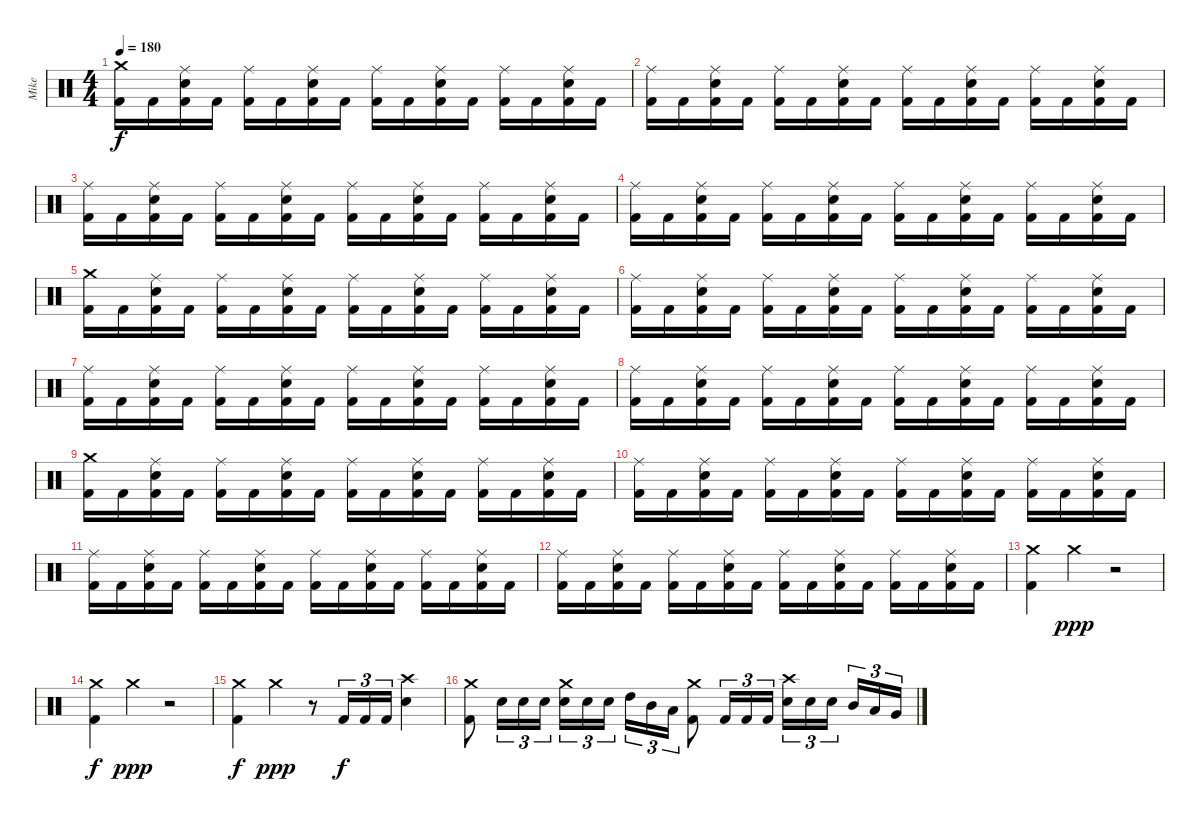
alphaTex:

\track ("Mike" "Mike") {instrument percussion}
\staff {score}
\articulation defaults
\ts (4 4)
\tempo 180
\clef neutral
\ks c
("Crash medium (hit)" "Kick (hit) 2").16{dy f} "Kick (hit) 2".16 ("Ride (middle)" "Electric Snare (hit)" "Kick (hit) 2").16 "Kick (hit) 2".16 ("Ride (middle)" "Kick (hit) 2").16 "Kick (hit) 2".16 ("Ride (middle)" "Electric Snare (hit)" "Kick (hit) 2").16 "Kick (hit) 2".16 ("Ride (middle)" "Kick (hit) 2").16 "Kick (hit) 2".16 ("Ride (middle)" "Electric Snare (hit)" "Kick (hit) 2").16 "Kick (hit) 2".16 ("Ride (middle)" "Kick (hit) 2").16 "Kick (hit) 2".16 ("Ride (middle)" "Electric Snare (hit)" "Kick (hit) 2").16 "Kick (hit) 2".16 |
("Ride (middle)" "Kick (hit) 2").16 "Kick (hit) 2".16 ("Ride (middle)" "Electric Snare (hit)" "Kick (hit) 2").16 "Kick (hit) 2".16 ("Ride (middle)" "Kick (hit) 2").16 "Kick (hit) 2".16 ("Ride (middle)" "Electric Snare (hit)" "Kick (hit) 2").16 "Kick (hit) 2".16 ("Ride (middle)" "Kick (hit) 2").16 "Kick (hit) 2".16 ("Ride (middle)" "Electric Snare (hit)" "Kick (hit) 2").16 "Kick (hit) 2".16 ("Ride (middle)" "Kick (hit) 2").16 "Kick (hit) 2".16 ("Ride (middle)" "Electric Snare (hit)" "Kick (hit) 2").16 "Kick (hit) 2".16 |
("Ride (middle)" "Kick (hit) 2").16 "Kick (hit) 2".16 ("Ride (middle)" "Electric Snare (hit)" "Kick (hit) 2").16 "Kick (hit) 2".16 ("Ride (middle)" "Kick (hit) 2").16 "Kick (hit) 2".16 ("Ride (middle)" "Electric Snare (hit)" "Kick (hit) 2").16 "Kick (hit) 2".16 ("Ride (middle)" "Kick (hit) 2").16 "Kick (hit) 2".16 ("Ride (middle)" "Electric Snare (hit)" "Kick (hit) 2").16 "Kick (hit) 2".16 ("Ride (middle)" "Kick (hit) 2").16 "Kick (hit) 2".16 ("Ride (middle)" "Electric Snare (hit)" "Kick (hit) 2").16 "Kick (hit) 2".16 |
("Ride (middle)" "Kick (hit) 2").16 "Kick (hit) 2".16 ("Ride (middle)" "Electric Snare (hit)" "Kick (hit) 2").16 "Kick (hit) 2".16 ("Ride (middle)" "Kick (hit) 2").16 "Kick (hit) 2".16 ("Ride (middle)" "Electric Snare (hit)" "Kick (hit) 2").16 "Kick (hit) 2".16 ("Ride (middle)" "Kick (hit) 2").16 "Kick (hit) 2".16 ("Ride (middle)" "Electric Snare (hit)" "Kick (hit) 2").16 "Kick (hit) 2".16 ("Ride (middle)" "Kick (hit) 2").16 "Kick (hit) 2".16 ("Ride (middle)" "Electric Snare (hit)" "Kick (hit) 2").16 "Kick (hit) 2".16 |
("Crash medium (hit)" "Kick (hit) 2").16 "Kick (hit) 2".16 ("Ride (middle)" "Electric Snare (hit)" "Kick (hit) 2").16 "Kick (hit) 2".16 ("Ride (middle)" "Kick (hit) 2").16 "Kick (hit) 2".16 ("Ride (middle)" "Electric Snare (hit)" "Kick (hit) 2").16 "Kick (hit) 2".16 ("Ride (middle)" "Kick (hit) 2").16 "Kick (hit) 2".16 ("Ride (middle)" "Electric Snare (hit)" "Kick (hit) 2").16 "Kick (hit) 2".16 ("Ride (middle)" "Kick (hit) 2").16 "Kick (hit) 2".16 ("Ride (middle)" "Electric Snare (hit)" "Kick (hit) 2").16 "Kick (hit) 2".16 |
("Ride (middle)" "Kick (hit) 2").16 "Kick (hit) 2".16 ("Ride (middle)" "Electric Snare (hit)" "Kick (hit) 2").16 "Kick (hit) 2".16 ("Ride (middle)" "Kick (hit) 2").16 "Kick (hit) 2".16 ("Ride (middle)" "Electric Snare (hit)" "Kick (hit) 2").16 "Kick (hit) 2".16 ("Ride (middle)" "Kick (hit) 2").16 "Kick (hit) 2".16 ("Ride (middle)" "Electric Snare (hit)" "Kick (hit) 2").16 "Kick (hit) 2".16 ("Ride (middle)" "Kick (hit) 2").16 "Kick (hit) 2".16 ("Ride (middle)" "Electric Snare (hit)" "Kick (hit) 2").16 "Kick (hit) 2".16 |
("Ride (middle)" "Kick (hit) 2").16 "Kick (hit) 2".16 ("Ride (middle)" "Electric Snare (hit)" "Kick (hit) 2").16 "Kick (hit) 2".16 ("Ride (middle)" "Kick (hit) 2").16 "Kick (hit) 2".16 ("Ride (middle)" "Electric Snare (hit)" "Kick (hit) 2").16 "Kick (hit) 2".16 ("Ride (middle)" "Kick (hit) 2").16 "Kick (hit) 2".16 ("Ride (middle)" "Electric Snare (hit)" "Kick (hit) 2").16 "Kick (hit) 2".16 ("Ride (middle)" "Kick (hit) 2").16 "Kick (hit) 2".16 ("Ride (middle)" "Electric Snare (hit)" "Kick (hit) 2").16 "Kick (hit) 2".16 |
("Ride (middle)" "Kick (hit) 2").16 "Kick (hit) 2".16 ("Ride (middle)" "Electric Snare (hit)" "Kick (hit) 2").16 "Kick (hit) 2".16 ("Ride (middle)" "Kick (hit) 2").16 "Kick (hit) 2".16 ("Ride (middle)" "Electric Snare (hit)" "Kick (hit) 2").16 "Kick (hit) 2".16 ("Ride (middle)" "Kick (hit) 2").16 "Kick (hit) 2".16 ("Ride (middle)" "Electric Snare (hit)" "Kick (hit) 2").16 "Kick (hit) 2".16 ("Ride (middle)" "Kick (hit) 2").16 "Kick (hit) 2".16 ("Ride (middle)" "Electric Snare (hit)" "Kick (hit) 2").16 "Kick (hit) 2".16 |
("Crash medium (hit)" "Kick (hit) 2").16 "Kick (hit) 2".16 ("Ride (middle)" "Electric Snare (hit)" "Kick (hit) 2").16 "Kick (hit) 2".16 ("Ride (middle)" "Kick (hit) 2").16 "Kick (hit) 2".16 ("Ride (middle)" "Electric Snare (hit)" "Kick (hit) 2").16 "Kick (hit) 2".16 ("Ride (middle)" "Kick (hit) 2").16 "Kick (hit) 2".16 ("Ride (middle)" "Electric Snare (hit)" "Kick (hit) 2").16 "Kick (hit) 2".16 ("Ride (middle)" "Kick (hit) 2").16 "Kick (hit) 2".16 ("Ride (middle)" "Electric Snare (hit)" "Kick (hit) 2").16 "Kick (hit) 2".16 |
("Ride (middle)" "Kick (hit) 2").16 "Kick (hit) 2".16 ("Ride (middle)" "Electric Snare (hit)" "Kick (hit) 2").16 "Kick (hit) 2".16 ("Ride (middle)" "Kick (hit) 2").16 "Kick (hit) 2".16 ("Ride (middle)" "Electric Snare (hit)" "Kick (hit) 2").16 "Kick (hit) 2".16 ("Ride (middle)" "Kick (hit) 2").16 "Kick (hit) 2".16 ("Ride (middle)" "Electric Snare (hit)" "Kick (hit) 2").16 "Kick (hit) 2".16 ("Ride (middle)" "Kick (hit) 2").16 "Kick (hit) 2".16 ("Ride (middle)" "Electric Snare (hit)" "Kick (hit) 2").16 "Kick (hit) 2".16 |
("Ride (middle)" "Kick (hit) 2").16 "Kick (hit) 2".16 ("Ride (middle)" "Electric Snare (hit)" "Kick (hit) 2").16 "Kick (hit) 2".16 ("Ride (middle)" "Kick (hit) 2").16 "Kick (hit) 2".16 ("Ride (middle)" "Electric Snare (hit)" "Kick (hit) 2").16 "Kick (hit) 2".16 ("Ride (middle)" "Kick (hit) 2").16 "Kick (hit) 2".16 ("Ride (middle)" "Electric Snare (hit)" "Kick (hit) 2").16 "Kick (hit) 2".16 ("Ride (middle)" "Kick (hit) 2").16 "Kick (hit) 2".16 ("Ride (middle)" "Electric Snare (hit)" "Kick (hit) 2").16 "Kick (hit) 2".16 |
("Ride (middle)" "Kick (hit) 2").16 "Kick (hit) 2".16 ("Ride (middle)" "Electric Snare (hit)" "Kick (hit) 2").16 "Kick (hit) 2".16 ("Ride (middle)" "Kick (hit) 2").16 "Kick (hit) 2".16 ("Ride (middle)" "Electric Snare (hit)" "Kick (hit) 2").16 "Kick (hit) 2".16 ("Ride (middle)" "Kick (hit) 2").16 "Kick (hit) 2".16 ("Ride (middle)" "Electric Snare (hit)" "Kick (hit) 2").16 "Kick (hit) 2".16 ("Ride (middle)" "Kick (hit) 2").16 "Kick (hit) 2".16 ("Ride (middle)" "Electric Snare (hit)" "Kick (hit) 2").16 "Kick (hit) 2".16 |
("Crash medium (hit)" "Kick (hit) 2").4 "Crash medium (hit)".4{dy ppp} r.2 |
("Crash medium (hit)" "Kick (hit) 2").4{dy f} "Crash medium (hit)".4{dy ppp} r.2 |
("Crash medium (hit)" "Kick (hit) 2").4{dy f} "Crash medium (hit)".4{dy ppp} r.8 "Kick (hit) 2".16{tu (3 2) dy f} "Kick (hit) 2".16{tu (3 2)} "Kick (hit) 2".16{tu (3 2)} ("Crash high (hit)" "Electric Snare (hit)").4 |
("Crash medium (hit)" "Kick (hit) 2").8 "Electric Snare (hit)".16{tu (3 2)} "Electric Snare (hit)".16{tu (3 2)} "Electric Snare (hit)".16{tu (3 2)} ("Crash medium (hit)" "Electric Snare (hit)").16{tu (3 2)} "Electric Snare (hit)".16{tu (3 2)} "Electric Snare (hit)".16{tu (3 2)} "High Tom (hit)".16{tu (3 2)} "Mid Tom (hit)".16{tu (3 2)} "Low Tom (hit)".16{tu (3 2)} ("Crash medium (hit)" "Kick (hit) 2").8 "Kick (hit) 2".16{tu (3 2)} "Kick (hit) 2".16{tu (3 2)} "Kick (hit) 2".16{tu (3 2)} ("Crash high (hit)" "Electric Snare (hit)").16{tu (3 2)} "Electric Snare (hit)".16{tu (3 2)} "Electric Snare (hit)".16{tu (3 2)} "Mid Tom (hit)".16{tu (3 2)} "Low Tom (hit)".16{tu (3 2)} "Very Low Tom (hit)".16{tu (3 2)}
